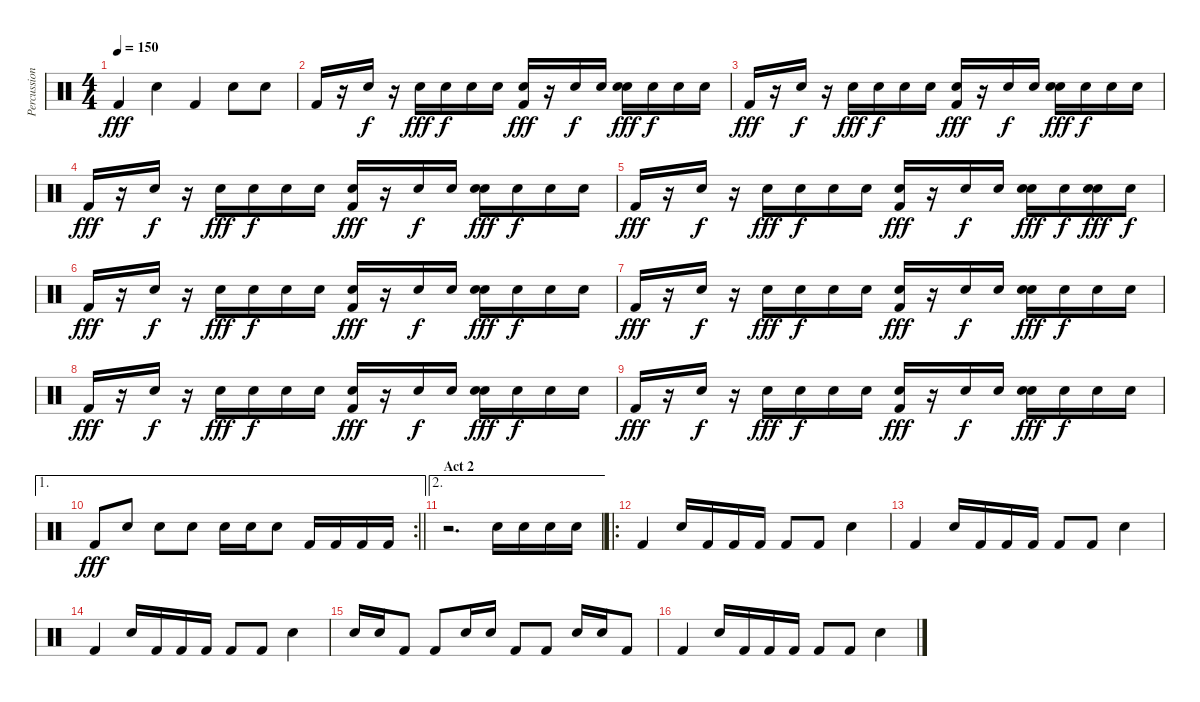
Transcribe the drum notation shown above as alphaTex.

\track ("Percussions" "Percussion") {instrument percussion}
\staff {score}
\articulation defaults
\ts (4 4)
\tempo 150
\clef neutral
\ks c "Kick (hit) 2".4{dy fff} "Snare (hit) 2".4 "Kick (hit) 2".4 "Snare (hit) 2".8 "Snare (hit) 2".8
|
"Kick (hit) 2".16 r.16 "Hand Clap (hit)".16{dy f} r.16 "Snare (hit) 2".16{dy fff} "Hand Clap (hit)".16{dy f} "Hand Clap (hit)".16 "Hand Clap (hit)".16 ("Hand Clap (hit)" "Kick (hit) 2").16{dy fff} r.16 "Hand Clap (hit)".16{dy f} "Hand Clap (hit)".16 ("Hand Clap (hit)" "Snare (hit) 2").16{dy fff} "Hand Clap (hit)".16{dy f} "Hand Clap (hit)".16 "Hand Clap (hit)".16 |
"Kick (hit) 2".16{dy fff} r.16 "Hand Clap (hit)".16{dy f} r.16 "Snare (hit) 2".16{dy fff} "Hand Clap (hit)".16{dy f} "Hand Clap (hit)".16 "Hand Clap (hit)".16 ("Hand Clap (hit)" "Kick (hit) 2").16{dy fff} r.16 "Hand Clap (hit)".16{dy f} "Hand Clap (hit)".16 ("Hand Clap (hit)" "Snare (hit) 2").16{dy fff} "Hand Clap (hit)".16{dy f} "Hand Clap (hit)".16 "Hand Clap (hit)".16 |
"Kick (hit) 2".16{dy fff} r.16 "Hand Clap (hit)".16{dy f} r.16 "Snare (hit) 2".16{dy fff} "Hand Clap (hit)".16{dy f} "Hand Clap (hit)".16 "Hand Clap (hit)".16 ("Hand Clap (hit)" "Kick (hit) 2").16{dy fff} r.16 "Hand Clap (hit)".16{dy f} "Hand Clap (hit)".16 ("Hand Clap (hit)" "Snare (hit) 2").16{dy fff} "Hand Clap (hit)".16{dy f} "Hand Clap (hit)".16 "Hand Clap (hit)".16 |
"Kick (hit) 2".16{dy fff} r.16 "Hand Clap (hit)".16{dy f} r.16 "Snare (hit) 2".16{dy fff} "Hand Clap (hit)".16{dy f} "Hand Clap (hit)".16 "Hand Clap (hit)".16 ("Hand Clap (hit)" "Kick (hit) 2").16{dy fff} r.16 "Hand Clap (hit)".16{dy f} "Hand Clap (hit)".16 ("Hand Clap (hit)" "Snare (hit) 2").16{dy fff} "Hand Clap (hit)".16{dy f} ("Hand Clap (hit)" "Snare (hit) 2").16{dy fff} "Hand Clap (hit)".16{dy f} |
"Kick (hit) 2".16{dy fff} r.16 "Hand Clap (hit)".16{dy f} r.16 "Snare (hit) 2".16{dy fff} "Hand Clap (hit)".16{dy f} "Hand Clap (hit)".16 "Hand Clap (hit)".16 ("Hand Clap (hit)" "Kick (hit) 2").16{dy fff} r.16 "Hand Clap (hit)".16{dy f} "Hand Clap (hit)".16 ("Hand Clap (hit)" "Snare (hit) 2").16{dy fff} "Hand Clap (hit)".16{dy f} "Hand Clap (hit)".16 "Hand Clap (hit)".16 |
"Kick (hit) 2".16{dy fff} r.16 "Hand Clap (hit)".16{dy f} r.16 "Snare (hit) 2".16{dy fff} "Hand Clap (hit)".16{dy f} "Hand Clap (hit)".16 "Hand Clap (hit)".16 ("Hand Clap (hit)" "Kick (hit) 2").16{dy fff} r.16 "Hand Clap (hit)".16{dy f} "Hand Clap (hit)".16 ("Hand Clap (hit)" "Snare (hit) 2").16{dy fff} "Hand Clap (hit)".16{dy f} "Hand Clap (hit)".16 "Hand Clap (hit)".16 |
"Kick (hit) 2".16{dy fff} r.16 "Hand Clap (hit)".16{dy f} r.16 "Snare (hit) 2".16{dy fff} "Hand Clap (hit)".16{dy f} "Hand Clap (hit)".16 "Hand Clap (hit)".16 ("Hand Clap (hit)" "Kick (hit) 2").16{dy fff} r.16 "Hand Clap (hit)".16{dy f} "Hand Clap (hit)".16 ("Hand Clap (hit)" "Snare (hit) 2").16{dy fff} "Hand Clap (hit)".16{dy f} "Hand Clap (hit)".16 "Hand Clap (hit)".16 |
"Kick (hit) 2".16{dy fff} r.16 "Hand Clap (hit)".16{dy f} r.16 "Snare (hit) 2".16{dy fff} "Hand Clap (hit)".16{dy f} "Hand Clap (hit)".16 "Hand Clap (hit)".16 ("Hand Clap (hit)" "Kick (hit) 2").16{dy fff} r.16 "Hand Clap (hit)".16{dy f} "Hand Clap (hit)".16 ("Hand Clap (hit)" "Snare (hit) 2").16{dy fff} "Hand Clap (hit)".16{dy f} "Hand Clap (hit)".16 "Hand Clap (hit)".16 |
\ae 1
\rc 2
\barLineRight lightlight "Kick (hit) 2".8{dy fff} "Snare (hit) 2".8 "Snare (hit) 2".8 "Snare (hit) 2".8 "Snare (hit) 2".16 "Snare (hit) 2".16 "Snare (hit) 2".8 "Kick (hit) 2".16 "Kick (hit) 2".16 "Kick (hit) 2".16 "Kick (hit) 2".16
|
\ae 2
\section ("" "Act 2")
r.2{d} "Snare (hit) 2".16 "Snare (hit) 2".16 "Snare (hit) 2".16 "Snare (hit) 2".16 |
\ro "Kick (hit) 2".4 "Snare (hit) 2".16 "Kick (hit) 2".16 "Kick (hit) 2".16 "Kick (hit) 2".16 "Kick (hit) 2".8 "Kick (hit) 2".8 "Snare (hit) 2".4
|
"Kick (hit) 2".4 "Snare (hit) 2".16 "Kick (hit) 2".16 "Kick (hit) 2".16 "Kick (hit) 2".16 "Kick (hit) 2".8 "Kick (hit) 2".8 "Snare (hit) 2".4 |
"Kick (hit) 2".4 "Snare (hit) 2".16 "Kick (hit) 2".16 "Kick (hit) 2".16 "Kick (hit) 2".16 "Kick (hit) 2".8 "Kick (hit) 2".8 "Snare (hit) 2".4 |
"Snare (hit) 2".16 "Snare (hit) 2".16 "Kick (hit) 2".8 "Kick (hit) 2".8 "Snare (hit) 2".16 "Snare (hit) 2".16 "Kick (hit) 2".8 "Kick (hit) 2".8 "Snare (hit) 2".16 "Snare (hit) 2".16 "Kick (hit) 2".8 |
"Kick (hit) 2".4 "Snare (hit) 2".16 "Kick (hit) 2".16 "Kick (hit) 2".16 "Kick (hit) 2".16 "Kick (hit) 2".8 "Kick (hit) 2".8 "Snare (hit) 2".4
